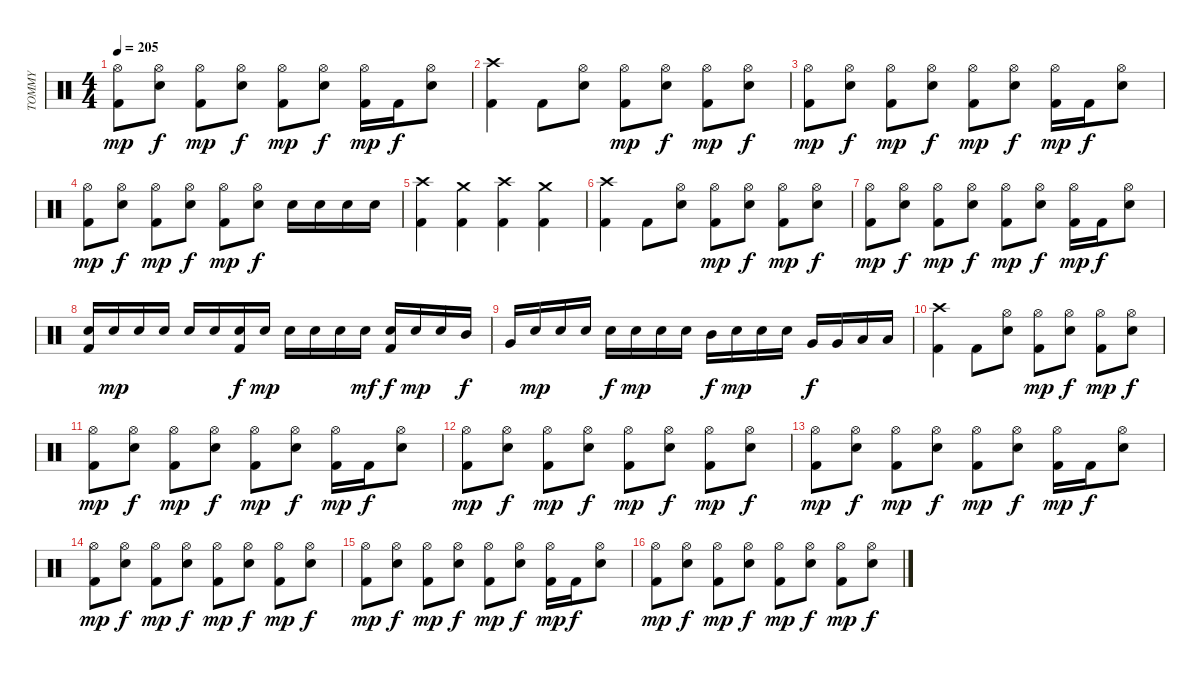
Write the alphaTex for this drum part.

\track ("TOMMY" "TOMMY") {instrument percussion}
\staff {score}
\articulation defaults
\ts (4 4)
\tempo 205
\clef neutral
\ks c
("Kick (hit) 2" "Hi-Hat (open)").8{dy mp} ("Snare (hit) 2" "Hi-Hat (open)").8{dy f} ("Kick (hit) 2" "Hi-Hat (open)").8{dy mp} ("Snare (hit) 2" "Hi-Hat (open)").8{dy f} ("Kick (hit) 2" "Hi-Hat (open)").8{dy mp} ("Snare (hit) 2" "Hi-Hat (open)").8{dy f} ("Kick (hit) 2" "Hi-Hat (open)").16{dy mp} "Kick (hit) 2".16{dy f} ("Snare (hit) 2" "Hi-Hat (open)").8 |
("Kick (hit) 2" "Crash high (hit)").4 "Kick (hit) 2".8 ("Snare (hit) 2" "Hi-Hat (open)").8 ("Kick (hit) 2" "Hi-Hat (open)").8{dy mp} ("Snare (hit) 2" "Hi-Hat (open)").8{dy f} ("Kick (hit) 2" "Hi-Hat (open)").8{dy mp} ("Snare (hit) 2" "Hi-Hat (open)").8{dy f} |
("Kick (hit) 2" "Hi-Hat (open)").8{dy mp} ("Snare (hit) 2" "Hi-Hat (open)").8{dy f} ("Kick (hit) 2" "Hi-Hat (open)").8{dy mp} ("Snare (hit) 2" "Hi-Hat (open)").8{dy f} ("Kick (hit) 2" "Hi-Hat (open)").8{dy mp} ("Snare (hit) 2" "Hi-Hat (open)").8{dy f} ("Kick (hit) 2" "Hi-Hat (open)").16{dy mp} "Kick (hit) 2".16{dy f} ("Snare (hit) 2" "Hi-Hat (open)").8 |
("Kick (hit) 2" "Hi-Hat (open)").8{dy mp} ("Snare (hit) 2" "Hi-Hat (open)").8{dy f} ("Kick (hit) 2" "Hi-Hat (open)").8{dy mp} ("Snare (hit) 2" "Hi-Hat (open)").8{dy f} ("Kick (hit) 2" "Hi-Hat (open)").8{dy mp} ("Snare (hit) 2" "Hi-Hat (open)").8{dy f} "Snare (hit) 2".16 "Snare (hit) 2".16 "Snare (hit) 2".16 "Snare (hit) 2".16 |
("Kick (hit) 2" "Crash high (hit)").4 ("Kick (hit) 2" "Crash medium (hit)").4 ("Kick (hit) 2" "Crash high (hit)").4 ("Kick (hit) 2" "Crash medium (hit)").4 |
("Kick (hit) 2" "Crash high (hit)").4 "Kick (hit) 2".8 ("Snare (hit) 2" "Hi-Hat (open)").8 ("Kick (hit) 2" "Hi-Hat (open)").8{dy mp} ("Snare (hit) 2" "Hi-Hat (open)").8{dy f} ("Kick (hit) 2" "Hi-Hat (open)").8{dy mp} ("Snare (hit) 2" "Hi-Hat (open)").8{dy f} |
("Kick (hit) 2" "Hi-Hat (open)").8{dy mp} ("Snare (hit) 2" "Hi-Hat (open)").8{dy f} ("Kick (hit) 2" "Hi-Hat (open)").8{dy mp} ("Snare (hit) 2" "Hi-Hat (open)").8{dy f} ("Kick (hit) 2" "Hi-Hat (open)").8{dy mp} ("Snare (hit) 2" "Hi-Hat (open)").8{dy f} ("Kick (hit) 2" "Hi-Hat (open)").16{dy mp} "Kick (hit) 2".16{dy f} ("Snare (hit) 2" "Hi-Hat (open)").8 |
("Snare (hit) 2" "Kick (hit) 2").16 "Snare (hit) 2".16{dy mp} "Snare (hit) 2".16 "Snare (hit) 2".16 "Snare (hit) 2".16 "Snare (hit) 2".16 ("Snare (hit) 2" "Kick (hit) 2").16{dy f} "Snare (hit) 2".16{dy mp} "Snare (hit) 2".16 "Snare (hit) 2".16 "Snare (hit) 2".16 "Snare (hit) 2".16{dy mf} ("Snare (hit) 2" "Kick (hit) 2").16{dy f} "Snare (hit) 2".16{dy mp} "Snare (hit) 2".16 "Mid Tom (hit)".16{dy f} |
"Very Low Tom (hit)".16 "Snare (hit) 2".16{dy mp} "Snare (hit) 2".16 "Snare (hit) 2".16 "Snare (hit) 2".16{dy f} "Snare (hit) 2".16{dy mp} "Snare (hit) 2".16 "Snare (hit) 2".16 "Mid Tom (hit)".16{dy f} "Snare (hit) 2".16{dy mp} "Snare (hit) 2".16 "Snare (hit) 2".16 "Very Low Tom (hit)".16{dy f} "Very Low Tom (hit)".16 "Low Floor Tom (hit)".16 "Low Floor Tom (hit)".16 |
("Kick (hit) 2" "Crash high (hit)").4 "Kick (hit) 2".8 ("Snare (hit) 2" "Hi-Hat (open)").8 ("Kick (hit) 2" "Hi-Hat (open)").8{dy mp} ("Snare (hit) 2" "Hi-Hat (open)").8{dy f} ("Kick (hit) 2" "Hi-Hat (open)").8{dy mp} ("Snare (hit) 2" "Hi-Hat (open)").8{dy f} |
("Kick (hit) 2" "Hi-Hat (open)").8{dy mp} ("Snare (hit) 2" "Hi-Hat (open)").8{dy f} ("Kick (hit) 2" "Hi-Hat (open)").8{dy mp} ("Snare (hit) 2" "Hi-Hat (open)").8{dy f} ("Kick (hit) 2" "Hi-Hat (open)").8{dy mp} ("Snare (hit) 2" "Hi-Hat (open)").8{dy f} ("Kick (hit) 2" "Hi-Hat (open)").16{dy mp} "Kick (hit) 2".16{dy f} ("Snare (hit) 2" "Hi-Hat (open)").8 |
("Kick (hit) 2" "Hi-Hat (open)").8{dy mp} ("Snare (hit) 2" "Hi-Hat (open)").8{dy f} ("Kick (hit) 2" "Hi-Hat (open)").8{dy mp} ("Snare (hit) 2" "Hi-Hat (open)").8{dy f} ("Kick (hit) 2" "Hi-Hat (open)").8{dy mp} ("Snare (hit) 2" "Hi-Hat (open)").8{dy f} ("Kick (hit) 2" "Hi-Hat (open)").8{dy mp} ("Snare (hit) 2" "Hi-Hat (open)").8{dy f} |
("Kick (hit) 2" "Hi-Hat (open)").8{dy mp} ("Snare (hit) 2" "Hi-Hat (open)").8{dy f} ("Kick (hit) 2" "Hi-Hat (open)").8{dy mp} ("Snare (hit) 2" "Hi-Hat (open)").8{dy f} ("Kick (hit) 2" "Hi-Hat (open)").8{dy mp} ("Snare (hit) 2" "Hi-Hat (open)").8{dy f} ("Kick (hit) 2" "Hi-Hat (open)").16{dy mp} "Kick (hit) 2".16{dy f} ("Snare (hit) 2" "Hi-Hat (open)").8 |
("Kick (hit) 2" "Hi-Hat (open)").8{dy mp} ("Snare (hit) 2" "Hi-Hat (open)").8{dy f} ("Kick (hit) 2" "Hi-Hat (open)").8{dy mp} ("Snare (hit) 2" "Hi-Hat (open)").8{dy f} ("Kick (hit) 2" "Hi-Hat (open)").8{dy mp} ("Snare (hit) 2" "Hi-Hat (open)").8{dy f} ("Kick (hit) 2" "Hi-Hat (open)").8{dy mp} ("Snare (hit) 2" "Hi-Hat (open)").8{dy f} |
("Kick (hit) 2" "Hi-Hat (open)").8{dy mp} ("Snare (hit) 2" "Hi-Hat (open)").8{dy f} ("Kick (hit) 2" "Hi-Hat (open)").8{dy mp} ("Snare (hit) 2" "Hi-Hat (open)").8{dy f} ("Kick (hit) 2" "Hi-Hat (open)").8{dy mp} ("Snare (hit) 2" "Hi-Hat (open)").8{dy f} ("Kick (hit) 2" "Hi-Hat (open)").16{dy mp} "Kick (hit) 2".16{dy f} ("Snare (hit) 2" "Hi-Hat (open)").8 |
("Kick (hit) 2" "Hi-Hat (open)").8{dy mp} ("Snare (hit) 2" "Hi-Hat (open)").8{dy f} ("Kick (hit) 2" "Hi-Hat (open)").8{dy mp} ("Snare (hit) 2" "Hi-Hat (open)").8{dy f} ("Kick (hit) 2" "Hi-Hat (open)").8{dy mp} ("Snare (hit) 2" "Hi-Hat (open)").8{dy f} ("Kick (hit) 2" "Hi-Hat (open)").8{dy mp} ("Snare (hit) 2" "Hi-Hat (open)").8{dy f}
